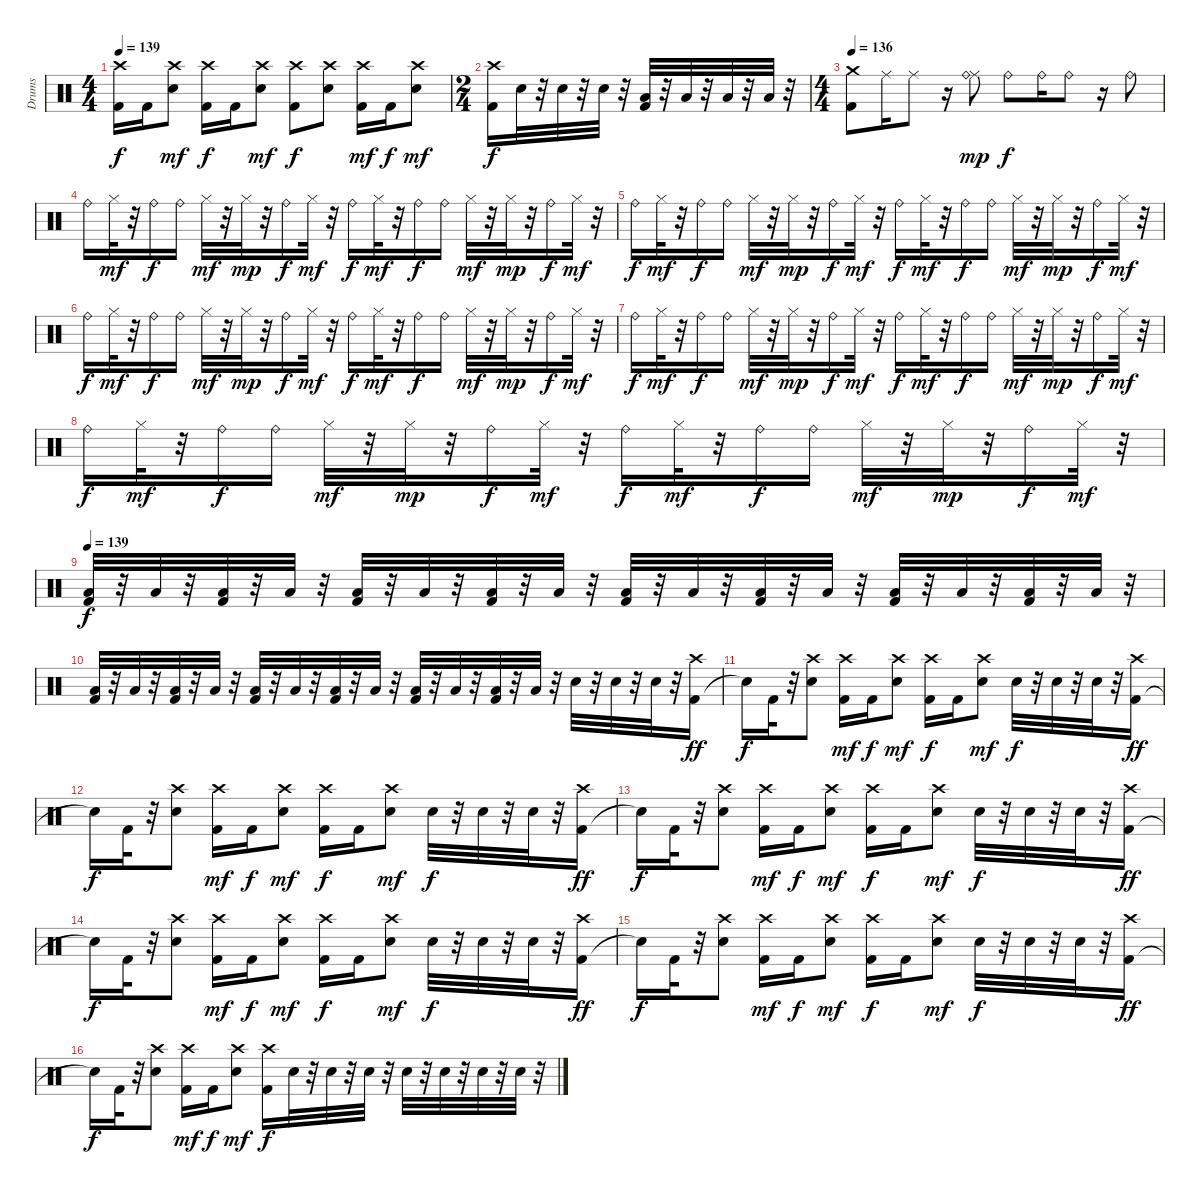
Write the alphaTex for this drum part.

\track ("Drums" "Drums") {instrument percussion}
\staff {score}
\articulation defaults
\ts (4 4)
\tempo 139
\clef neutral
\ks c
("Kick (hit) 2" "Crash high (hit)").16{dy f} "Kick (hit) 2".16 ("Electric Snare (hit)" "Crash high (hit)").8{dy mf} ("Kick (hit) 2" "Crash high (hit)").16{dy f} "Kick (hit) 2".16 ("Electric Snare (hit)" "Crash high (hit)").8{dy mf} ("Crash high (hit)" "Kick (hit) 2").8{dy f} ("Electric Snare (hit)" "Crash high (hit)").8 ("Kick (hit) 2" "Crash high (hit)").16{dy mf} "Kick (hit) 2".16{dy f} ("Electric Snare (hit)" "Crash high (hit)").8{dy mf} |
\ts (2 4)
("Kick (hit) 2" "Crash high (hit)").16{dy f} "Electric Snare (hit)".32 r.32 "Electric Snare (hit)".32 r.32 "Electric Snare (hit)".32 r.32 ("Kick (hit) 2" "Low Tom (hit)").32 r.32 "Low Tom (hit)".32 r.32 "Low Floor Tom (hit)".32 r.32 "Low Floor Tom (hit)".32 r.32 |
\ts (4 4)
\tempo 136
("Crash medium (hit)" "Kick (hit) 2").8 "Ride (middle)".16 "Ride (middle)".8 r.16 ("Ride (middle)" "Ride (bell)").8{dy mp} "Ride (bell)".8{dy f} "Ride (bell)".16 "Ride (bell)".8 r.16 "Ride (bell)".8 |
"Ride (bell)".16 "Hi-Hat (closed)".32{dy mf} r.32 "Ride (bell)".16{dy f} "Ride (bell)".16 "Hi-Hat (closed)".32{dy mf} r.32 "Hi-Hat (closed)".32{dy mp} r.32 "Ride (bell)".16{dy f} "Hi-Hat (closed)".32{dy mf} r.32 "Ride (bell)".16{dy f} "Hi-Hat (closed)".32{dy mf} r.32 "Ride (bell)".16{dy f} "Ride (bell)".16 "Hi-Hat (closed)".32{dy mf} r.32 "Hi-Hat (closed)".32{dy mp} r.32 "Ride (bell)".16{dy f} "Hi-Hat (closed)".32{dy mf} r.32 |
"Ride (bell)".16{dy f} "Hi-Hat (closed)".32{dy mf} r.32 "Ride (bell)".16{dy f} "Ride (bell)".16 "Hi-Hat (closed)".32{dy mf} r.32 "Hi-Hat (closed)".32{dy mp} r.32 "Ride (bell)".16{dy f} "Hi-Hat (closed)".32{dy mf} r.32 "Ride (bell)".16{dy f} "Hi-Hat (closed)".32{dy mf} r.32 "Ride (bell)".16{dy f} "Ride (bell)".16 "Hi-Hat (closed)".32{dy mf} r.32 "Hi-Hat (closed)".32{dy mp} r.32 "Ride (bell)".16{dy f} "Hi-Hat (closed)".32{dy mf} r.32 |
"Ride (bell)".16{dy f} "Hi-Hat (closed)".32{dy mf} r.32 "Ride (bell)".16{dy f} "Ride (bell)".16 "Hi-Hat (closed)".32{dy mf} r.32 "Hi-Hat (closed)".32{dy mp} r.32 "Ride (bell)".16{dy f} "Hi-Hat (closed)".32{dy mf} r.32 "Ride (bell)".16{dy f} "Hi-Hat (closed)".32{dy mf} r.32 "Ride (bell)".16{dy f} "Ride (bell)".16 "Hi-Hat (closed)".32{dy mf} r.32 "Hi-Hat (closed)".32{dy mp} r.32 "Ride (bell)".16{dy f} "Hi-Hat (closed)".32{dy mf} r.32 |
"Ride (bell)".16{dy f} "Hi-Hat (closed)".32{dy mf} r.32 "Ride (bell)".16{dy f} "Ride (bell)".16 "Hi-Hat (closed)".32{dy mf} r.32 "Hi-Hat (closed)".32{dy mp} r.32 "Ride (bell)".16{dy f} "Hi-Hat (closed)".32{dy mf} r.32 "Ride (bell)".16{dy f} "Hi-Hat (closed)".32{dy mf} r.32 "Ride (bell)".16{dy f} "Ride (bell)".16 "Hi-Hat (closed)".32{dy mf} r.32 "Hi-Hat (closed)".32{dy mp} r.32 "Ride (bell)".16{dy f} "Hi-Hat (closed)".32{dy mf} r.32 |
"Ride (bell)".16{dy f} "Hi-Hat (closed)".32{dy mf} r.32 "Ride (bell)".16{dy f} "Ride (bell)".16 "Hi-Hat (closed)".32{dy mf} r.32 "Hi-Hat (closed)".32{dy mp} r.32 "Ride (bell)".16{dy f} "Hi-Hat (closed)".32{dy mf} r.32 "Ride (bell)".16{dy f} "Hi-Hat (closed)".32{dy mf} r.32 "Ride (bell)".16{dy f} "Ride (bell)".16 "Hi-Hat (closed)".32{dy mf} r.32 "Hi-Hat (closed)".32{dy mp} r.32 "Ride (bell)".16{dy f} "Hi-Hat (closed)".32{dy mf} r.32 |
\tempo 139
("Low Floor Tom (hit)" "Kick (hit) 2").32{dy f} r.32 "Low Floor Tom (hit)".32 r.32 ("Low Floor Tom (hit)" "Kick (hit) 2").32 r.32 "Low Floor Tom (hit)".32 r.32 ("Low Floor Tom (hit)" "Kick (hit) 2").32 r.32 "Low Floor Tom (hit)".32 r.32 ("Low Floor Tom (hit)" "Kick (hit) 2").32 r.32 "Low Floor Tom (hit)".32 r.32 ("Low Floor Tom (hit)" "Kick (hit) 2").32 r.32 "Low Floor Tom (hit)".32 r.32 ("Low Floor Tom (hit)" "Kick (hit) 2").32 r.32 "Low Floor Tom (hit)".32 r.32 ("Low Floor Tom (hit)" "Kick (hit) 2").32 r.32 "Low Floor Tom (hit)".32 r.32 ("Low Floor Tom (hit)" "Kick (hit) 2").32 r.32 "Low Floor Tom (hit)".32 r.32 |
("Low Floor Tom (hit)" "Kick (hit) 2").32 r.32 "Low Floor Tom (hit)".32 r.32 ("Low Floor Tom (hit)" "Kick (hit) 2").32 r.32 "Low Floor Tom (hit)".32 r.32 ("Low Floor Tom (hit)" "Kick (hit) 2").32 r.32 "Low Floor Tom (hit)".32 r.32 ("Low Floor Tom (hit)" "Kick (hit) 2").32 r.32 "Low Floor Tom (hit)".32 r.32 ("Low Floor Tom (hit)" "Kick (hit) 2").32 r.32 "Low Floor Tom (hit)".32 r.32 ("Low Floor Tom (hit)" "Kick (hit) 2").32 r.32 "Low Floor Tom (hit)".32 r.32 "Electric Snare (hit)".32 r.32 "Electric Snare (hit)".32 r.32 "Electric Snare (hit)".32 r.32 ("Kick (hit) 2" "Crash high (hit)").16{dy ff} |
"Snare (hit)"{t}.16{dy f} "Kick (hit) 2".32 r.32 ("Electric Snare (hit)" "Crash high (hit)").8 ("Kick (hit) 2" "Crash high (hit)").16{dy mf} "Kick (hit) 2".16{dy f} ("Electric Snare (hit)" "Crash high (hit)").8{dy mf} ("Kick (hit) 2" "Crash high (hit)").16{dy f} "Kick (hit) 2".16 ("Electric Snare (hit)" "Crash high (hit)").8{dy mf} "Electric Snare (hit)".32{dy f} r.32 "Electric Snare (hit)".32 r.32 "Electric Snare (hit)".32 r.32 ("Kick (hit) 2" "Crash high (hit)").16{dy ff} |
"Snare (hit)"{t}.16{dy f} "Kick (hit) 2".32 r.32 ("Electric Snare (hit)" "Crash high (hit)").8 ("Kick (hit) 2" "Crash high (hit)").16{dy mf} "Kick (hit) 2".16{dy f} ("Electric Snare (hit)" "Crash high (hit)").8{dy mf} ("Kick (hit) 2" "Crash high (hit)").16{dy f} "Kick (hit) 2".16 ("Electric Snare (hit)" "Crash high (hit)").8{dy mf} "Electric Snare (hit)".32{dy f} r.32 "Electric Snare (hit)".32 r.32 "Electric Snare (hit)".32 r.32 ("Kick (hit) 2" "Crash high (hit)").16{dy ff} |
"Snare (hit)"{t}.16{dy f} "Kick (hit) 2".32 r.32 ("Electric Snare (hit)" "Crash high (hit)").8 ("Kick (hit) 2" "Crash high (hit)").16{dy mf} "Kick (hit) 2".16{dy f} ("Electric Snare (hit)" "Crash high (hit)").8{dy mf} ("Kick (hit) 2" "Crash high (hit)").16{dy f} "Kick (hit) 2".16 ("Electric Snare (hit)" "Crash high (hit)").8{dy mf} "Electric Snare (hit)".32{dy f} r.32 "Electric Snare (hit)".32 r.32 "Electric Snare (hit)".32 r.32 ("Kick (hit) 2" "Crash high (hit)").16{dy ff} |
"Snare (hit)"{t}.16{dy f} "Kick (hit) 2".32 r.32 ("Electric Snare (hit)" "Crash high (hit)").8 ("Kick (hit) 2" "Crash high (hit)").16{dy mf} "Kick (hit) 2".16{dy f} ("Electric Snare (hit)" "Crash high (hit)").8{dy mf} ("Kick (hit) 2" "Crash high (hit)").16{dy f} "Kick (hit) 2".16 ("Electric Snare (hit)" "Crash high (hit)").8{dy mf} "Electric Snare (hit)".32{dy f} r.32 "Electric Snare (hit)".32 r.32 "Electric Snare (hit)".32 r.32 ("Kick (hit) 2" "Crash high (hit)").16{dy ff} |
"Snare (hit)"{t}.16{dy f} "Kick (hit) 2".32 r.32 ("Electric Snare (hit)" "Crash high (hit)").8 ("Kick (hit) 2" "Crash high (hit)").16{dy mf} "Kick (hit) 2".16{dy f} ("Electric Snare (hit)" "Crash high (hit)").8{dy mf} ("Kick (hit) 2" "Crash high (hit)").16{dy f} "Kick (hit) 2".16 ("Electric Snare (hit)" "Crash high (hit)").8{dy mf} "Electric Snare (hit)".32{dy f} r.32 "Electric Snare (hit)".32 r.32 "Electric Snare (hit)".32 r.32 ("Kick (hit) 2" "Crash high (hit)").16{dy ff} |
"Snare (hit)"{t}.16{dy f} "Kick (hit) 2".32 r.32 ("Electric Snare (hit)" "Crash high (hit)").8 ("Crash high (hit)" "Kick (hit) 2").16{dy mf} "Kick (hit) 2".16{dy f} ("Electric Snare (hit)" "Crash high (hit)").8{dy mf} ("Kick (hit) 2" "Crash high (hit)").16{dy f} "Electric Snare (hit)".32 r.32 "Electric Snare (hit)".32 r.32 "Electric Snare (hit)".32 r.32 "Electric Snare (hit)".32 r.32 "Electric Snare (hit)".32 r.32 "Electric Snare (hit)".32 r.32 "Electric Snare (hit)".32 r.32
